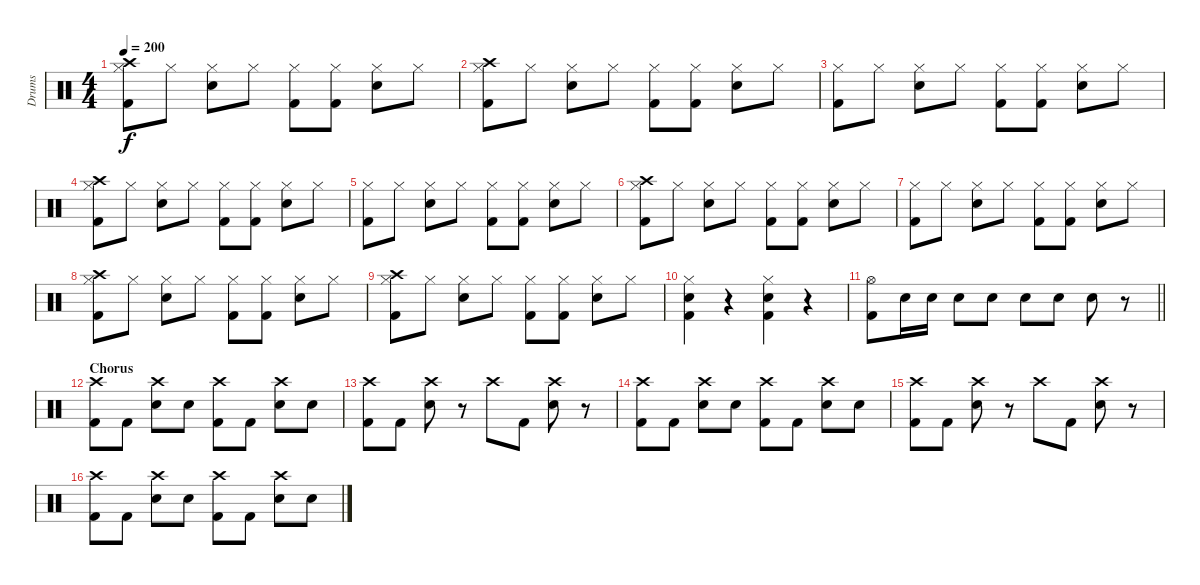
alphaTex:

\track ("Drums" "Drums") {instrument percussion}
\staff {score}
\articulation defaults
\ts (4 4)
\tempo 200
\clef neutral
\ks c
("Hi-Hat (closed)" "Crash high (hit)" "Kick (hit) 2").8{dy f} "Hi-Hat (closed)".8 ("Hi-Hat (closed)" "Electric Snare (hit)").8 "Hi-Hat (closed)".8 ("Hi-Hat (closed)" "Kick (hit) 2").8 ("Hi-Hat (closed)" "Kick (hit) 2").8 ("Hi-Hat (closed)" "Electric Snare (hit)").8 "Hi-Hat (closed)".8 |
("Hi-Hat (closed)" "Crash high (hit)" "Kick (hit) 2").8 "Hi-Hat (closed)".8 ("Hi-Hat (closed)" "Electric Snare (hit)").8 "Hi-Hat (closed)".8 ("Hi-Hat (closed)" "Kick (hit) 2").8 ("Hi-Hat (closed)" "Kick (hit) 2").8 ("Hi-Hat (closed)" "Electric Snare (hit)").8 "Hi-Hat (closed)".8 |
("Hi-Hat (closed)" "Kick (hit) 2").8 "Hi-Hat (closed)".8 ("Hi-Hat (closed)" "Electric Snare (hit)").8 "Hi-Hat (closed)".8 ("Hi-Hat (closed)" "Kick (hit) 2").8 ("Hi-Hat (closed)" "Kick (hit) 2").8 ("Hi-Hat (closed)" "Electric Snare (hit)").8 "Hi-Hat (closed)".8 |
("Hi-Hat (closed)" "Crash high (hit)" "Kick (hit) 2").8 "Hi-Hat (closed)".8 ("Hi-Hat (closed)" "Electric Snare (hit)").8 "Hi-Hat (closed)".8 ("Hi-Hat (closed)" "Kick (hit) 2").8 ("Hi-Hat (closed)" "Kick (hit) 2").8 ("Hi-Hat (closed)" "Electric Snare (hit)").8 "Hi-Hat (closed)".8 |
("Hi-Hat (closed)" "Kick (hit) 2").8 "Hi-Hat (closed)".8 ("Hi-Hat (closed)" "Electric Snare (hit)").8 "Hi-Hat (closed)".8 ("Hi-Hat (closed)" "Kick (hit) 2").8 ("Hi-Hat (closed)" "Kick (hit) 2").8 ("Hi-Hat (closed)" "Electric Snare (hit)").8 "Hi-Hat (closed)".8 |
("Hi-Hat (closed)" "Crash high (hit)" "Kick (hit) 2").8 "Hi-Hat (closed)".8 ("Hi-Hat (closed)" "Electric Snare (hit)").8 "Hi-Hat (closed)".8 ("Hi-Hat (closed)" "Kick (hit) 2").8 ("Hi-Hat (closed)" "Kick (hit) 2").8 ("Hi-Hat (closed)" "Electric Snare (hit)").8 "Hi-Hat (closed)".8 |
("Hi-Hat (closed)" "Kick (hit) 2").8 "Hi-Hat (closed)".8 ("Hi-Hat (closed)" "Electric Snare (hit)").8 "Hi-Hat (closed)".8 ("Hi-Hat (closed)" "Kick (hit) 2").8 ("Hi-Hat (closed)" "Kick (hit) 2").8 ("Hi-Hat (closed)" "Electric Snare (hit)").8 "Hi-Hat (closed)".8 |
("Hi-Hat (closed)" "Crash high (hit)" "Kick (hit) 2").8 "Hi-Hat (closed)".8 ("Hi-Hat (closed)" "Electric Snare (hit)").8 "Hi-Hat (closed)".8 ("Hi-Hat (closed)" "Kick (hit) 2").8 ("Hi-Hat (closed)" "Kick (hit) 2").8 ("Hi-Hat (closed)" "Electric Snare (hit)").8 "Hi-Hat (closed)".8 |
("Hi-Hat (closed)" "Crash high (hit)" "Kick (hit) 2").8 "Hi-Hat (closed)".8 ("Hi-Hat (closed)" "Electric Snare (hit)").8 "Hi-Hat (closed)".8 ("Hi-Hat (closed)" "Kick (hit) 2").8 ("Hi-Hat (closed)" "Kick (hit) 2").8 ("Hi-Hat (closed)" "Electric Snare (hit)").8 "Hi-Hat (closed)".8 |
("Hi-Hat (closed)" "Electric Snare (hit)" "Kick (hit) 2").4 r.4 ("Hi-Hat (closed)" "Electric Snare (hit)" "Kick (hit) 2").4 r.4 |
\barLineRight lightlight
("Hi-Hat (open)" "Kick (hit) 2").8 "Electric Snare (hit)".16 "Electric Snare (hit)".16 "Electric Snare (hit)".8 "Electric Snare (hit)".8 "Electric Snare (hit)".8 "Electric Snare (hit)".8 "Electric Snare (hit)".8 r.8 |
\section ("" "Chorus")
("Crash high (hit)" "Kick (hit) 2").8 "Kick (hit) 2".8 ("Crash high (hit)" "Electric Snare (hit)").8 "Electric Snare (hit)".8 ("Crash high (hit)" "Kick (hit) 2").8 "Kick (hit) 2".8 ("Crash high (hit)" "Electric Snare (hit)").8 "Electric Snare (hit)".8 |
("Crash high (hit)" "Kick (hit) 2").8 "Kick (hit) 2".8 ("Crash high (hit)" "Electric Snare (hit)").8 r.8 "Crash high (hit)".8 "Kick (hit) 2".8 ("Crash high (hit)" "Electric Snare (hit)").8 r.8 |
("Crash high (hit)" "Kick (hit) 2").8 "Kick (hit) 2".8 ("Crash high (hit)" "Electric Snare (hit)").8 "Electric Snare (hit)".8 ("Crash high (hit)" "Kick (hit) 2").8 "Kick (hit) 2".8 ("Crash high (hit)" "Electric Snare (hit)").8 "Electric Snare (hit)".8 |
("Crash high (hit)" "Kick (hit) 2").8 "Kick (hit) 2".8 ("Crash high (hit)" "Electric Snare (hit)").8 r.8 "Crash high (hit)".8 "Kick (hit) 2".8 ("Crash high (hit)" "Electric Snare (hit)").8 r.8 |
("Crash high (hit)" "Kick (hit) 2").8 "Kick (hit) 2".8 ("Crash high (hit)" "Electric Snare (hit)").8 "Electric Snare (hit)".8 ("Crash high (hit)" "Kick (hit) 2").8 "Kick (hit) 2".8 ("Crash high (hit)" "Electric Snare (hit)").8 "Electric Snare (hit)".8
